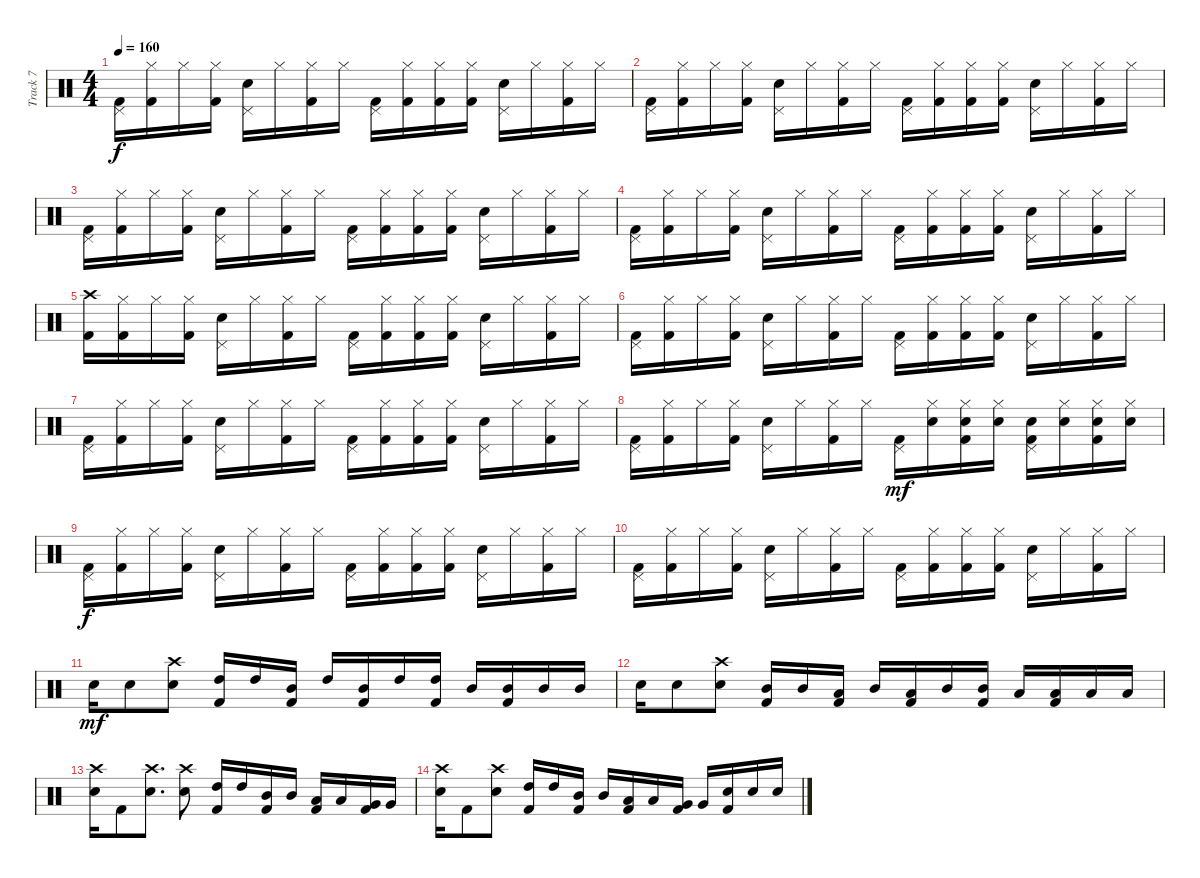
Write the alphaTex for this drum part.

\track ("Track 7" "Track 7") {instrument percussion}
\staff {score}
\articulation defaults
\ts (4 4)
\tempo 160
\clef neutral
\ks c
("Pedal Hi-Hat (hit)" "Kick (hit) 2").16{dy f} ("Hi-Hat (closed)" "Kick (hit) 2").16 "Hi-Hat (closed)".16 ("Hi-Hat (closed)" "Kick (hit) 2").16 ("Pedal Hi-Hat (hit)" "Snare (hit) 2").16 "Hi-Hat (closed)".16 ("Hi-Hat (closed)" "Kick (hit) 2").16 "Hi-Hat (closed)".16 ("Pedal Hi-Hat (hit)" "Kick (hit) 2").16 ("Hi-Hat (closed)" "Kick (hit) 2").16 ("Hi-Hat (closed)" "Kick (hit) 2").16 ("Hi-Hat (closed)" "Kick (hit) 2").16 ("Pedal Hi-Hat (hit)" "Snare (hit) 2").16 "Hi-Hat (closed)".16 ("Hi-Hat (closed)" "Kick (hit) 2").16 "Hi-Hat (closed)".16 |
("Pedal Hi-Hat (hit)" "Kick (hit) 2").16 ("Hi-Hat (closed)" "Kick (hit) 2").16 "Hi-Hat (closed)".16 ("Hi-Hat (closed)" "Kick (hit) 2").16 ("Pedal Hi-Hat (hit)" "Snare (hit) 2").16 "Hi-Hat (closed)".16 ("Hi-Hat (closed)" "Kick (hit) 2").16 "Hi-Hat (closed)".16 ("Pedal Hi-Hat (hit)" "Kick (hit) 2").16 ("Hi-Hat (closed)" "Kick (hit) 2").16 ("Hi-Hat (closed)" "Kick (hit) 2").16 ("Hi-Hat (closed)" "Kick (hit) 2").16 ("Pedal Hi-Hat (hit)" "Snare (hit) 2").16 "Hi-Hat (closed)".16 ("Hi-Hat (closed)" "Kick (hit) 2").16 "Hi-Hat (closed)".16 |
("Pedal Hi-Hat (hit)" "Kick (hit) 2").16 ("Hi-Hat (closed)" "Kick (hit) 2").16 "Hi-Hat (closed)".16 ("Hi-Hat (closed)" "Kick (hit) 2").16 ("Pedal Hi-Hat (hit)" "Snare (hit) 2").16 "Hi-Hat (closed)".16 ("Hi-Hat (closed)" "Kick (hit) 2").16 "Hi-Hat (closed)".16 ("Pedal Hi-Hat (hit)" "Kick (hit) 2").16 ("Hi-Hat (closed)" "Kick (hit) 2").16 ("Hi-Hat (closed)" "Kick (hit) 2").16 ("Hi-Hat (closed)" "Kick (hit) 2").16 ("Pedal Hi-Hat (hit)" "Snare (hit) 2").16 "Hi-Hat (closed)".16 ("Hi-Hat (closed)" "Kick (hit) 2").16 "Hi-Hat (closed)".16 |
("Pedal Hi-Hat (hit)" "Kick (hit) 2").16 ("Hi-Hat (closed)" "Kick (hit) 2").16 "Hi-Hat (closed)".16 ("Hi-Hat (closed)" "Kick (hit) 2").16 ("Pedal Hi-Hat (hit)" "Snare (hit) 2").16 "Hi-Hat (closed)".16 ("Hi-Hat (closed)" "Kick (hit) 2").16 "Hi-Hat (closed)".16 ("Pedal Hi-Hat (hit)" "Kick (hit) 2").16 ("Hi-Hat (closed)" "Kick (hit) 2").16 ("Hi-Hat (closed)" "Kick (hit) 2").16 ("Hi-Hat (closed)" "Kick (hit) 2").16 ("Pedal Hi-Hat (hit)" "Snare (hit) 2").16 "Hi-Hat (closed)".16 ("Hi-Hat (closed)" "Kick (hit) 2").16 "Hi-Hat (closed)".16 |
("Crash high (hit)" "Kick (hit) 2").16 ("Hi-Hat (closed)" "Kick (hit) 2").16 "Hi-Hat (closed)".16 ("Hi-Hat (closed)" "Kick (hit) 2").16 ("Pedal Hi-Hat (hit)" "Snare (hit) 2").16 "Hi-Hat (closed)".16 ("Hi-Hat (closed)" "Kick (hit) 2").16 "Hi-Hat (closed)".16 ("Pedal Hi-Hat (hit)" "Kick (hit) 2").16 ("Hi-Hat (closed)" "Kick (hit) 2").16 ("Hi-Hat (closed)" "Kick (hit) 2").16 ("Hi-Hat (closed)" "Kick (hit) 2").16 ("Pedal Hi-Hat (hit)" "Snare (hit) 2").16 "Hi-Hat (closed)".16 ("Hi-Hat (closed)" "Kick (hit) 2").16 "Hi-Hat (closed)".16 |
("Pedal Hi-Hat (hit)" "Kick (hit) 2").16 ("Hi-Hat (closed)" "Kick (hit) 2").16 "Hi-Hat (closed)".16 ("Hi-Hat (closed)" "Kick (hit) 2").16 ("Pedal Hi-Hat (hit)" "Snare (hit) 2").16 "Hi-Hat (closed)".16 ("Hi-Hat (closed)" "Kick (hit) 2").16 "Hi-Hat (closed)".16 ("Pedal Hi-Hat (hit)" "Kick (hit) 2").16 ("Hi-Hat (closed)" "Kick (hit) 2").16 ("Hi-Hat (closed)" "Kick (hit) 2").16 ("Hi-Hat (closed)" "Kick (hit) 2").16 ("Pedal Hi-Hat (hit)" "Snare (hit) 2").16 "Hi-Hat (closed)".16 ("Hi-Hat (closed)" "Kick (hit) 2").16 "Hi-Hat (closed)".16 |
("Pedal Hi-Hat (hit)" "Kick (hit) 2").16 ("Hi-Hat (closed)" "Kick (hit) 2").16 "Hi-Hat (closed)".16 ("Hi-Hat (closed)" "Kick (hit) 2").16 ("Pedal Hi-Hat (hit)" "Snare (hit) 2").16 "Hi-Hat (closed)".16 ("Hi-Hat (closed)" "Kick (hit) 2").16 "Hi-Hat (closed)".16 ("Pedal Hi-Hat (hit)" "Kick (hit) 2").16 ("Hi-Hat (closed)" "Kick (hit) 2").16 ("Hi-Hat (closed)" "Kick (hit) 2").16 ("Hi-Hat (closed)" "Kick (hit) 2").16 ("Pedal Hi-Hat (hit)" "Snare (hit) 2").16 "Hi-Hat (closed)".16 ("Hi-Hat (closed)" "Kick (hit) 2").16 "Hi-Hat (closed)".16 |
("Pedal Hi-Hat (hit)" "Kick (hit) 2").16 ("Hi-Hat (closed)" "Kick (hit) 2").16 "Hi-Hat (closed)".16 ("Hi-Hat (closed)" "Kick (hit) 2").16 ("Pedal Hi-Hat (hit)" "Snare (hit) 2").16 "Hi-Hat (closed)".16 ("Hi-Hat (closed)" "Kick (hit) 2").16 "Hi-Hat (closed)".16 ("Pedal Hi-Hat (hit)" "Kick (hit) 2").16{dy mf} ("Hi-Hat (closed)" "Snare (hit) 2").16 ("Hi-Hat (closed)" "Snare (hit) 2" "Kick (hit) 2").16 ("Hi-Hat (closed)" "Snare (hit) 2").16 ("Pedal Hi-Hat (hit)" "Snare (hit) 2" "Kick (hit) 2").16 ("Hi-Hat (closed)" "Snare (hit) 2").16 ("Hi-Hat (closed)" "Snare (hit) 2" "Kick (hit) 2").16 ("Hi-Hat (closed)" "Snare (hit) 2").16 |
("Pedal Hi-Hat (hit)" "Kick (hit) 2").16{dy f} ("Hi-Hat (closed)" "Kick (hit) 2").16 "Hi-Hat (closed)".16 ("Hi-Hat (closed)" "Kick (hit) 2").16 ("Pedal Hi-Hat (hit)" "Snare (hit) 2").16 "Hi-Hat (closed)".16 ("Hi-Hat (closed)" "Kick (hit) 2").16 "Hi-Hat (closed)".16 ("Pedal Hi-Hat (hit)" "Kick (hit) 2").16 ("Hi-Hat (closed)" "Kick (hit) 2").16 ("Hi-Hat (closed)" "Kick (hit) 2").16 ("Hi-Hat (closed)" "Kick (hit) 2").16 ("Pedal Hi-Hat (hit)" "Snare (hit) 2").16 "Hi-Hat (closed)".16 ("Hi-Hat (closed)" "Kick (hit) 2").16 "Hi-Hat (closed)".16 |
("Pedal Hi-Hat (hit)" "Kick (hit) 2").16 ("Hi-Hat (closed)" "Kick (hit) 2").16 "Hi-Hat (closed)".16 ("Hi-Hat (closed)" "Kick (hit) 2").16 ("Pedal Hi-Hat (hit)" "Snare (hit) 2").16 "Hi-Hat (closed)".16 ("Hi-Hat (closed)" "Kick (hit) 2").16 "Hi-Hat (closed)".16 ("Pedal Hi-Hat (hit)" "Kick (hit) 2").16 ("Hi-Hat (closed)" "Kick (hit) 2").16 ("Hi-Hat (closed)" "Kick (hit) 2").16 ("Hi-Hat (closed)" "Kick (hit) 2").16 ("Pedal Hi-Hat (hit)" "Snare (hit) 2").16 "Hi-Hat (closed)".16 ("Hi-Hat (closed)" "Kick (hit) 2").16 "Hi-Hat (closed)".16 |
"Snare (hit) 2".16{dy mf} "Snare (hit) 2".8 ("Crash high (hit)" "Snare (hit) 2").8 ("High Tom (hit)" "Kick (hit) 2").16 "High Tom (hit)".16 ("Mid Tom (hit)" "Kick (hit) 2").16 "High Tom (hit)".16 ("Mid Tom (hit)" "Kick (hit) 2").16 "High Tom (hit)".16 ("High Tom (hit)" "Kick (hit) 2").16 "Mid Tom (hit)".16 ("Mid Tom (hit)" "Kick (hit) 2").16 "Mid Tom (hit)".16 "Mid Tom (hit)".16 |
"Snare (hit) 2".16 "Snare (hit) 2".8 ("Crash high (hit)" "Snare (hit) 2").8 ("Mid Tom (hit)" "Kick (hit) 2").16 "Mid Tom (hit)".16 ("Low Tom (hit)" "Kick (hit) 2").16 "Mid Tom (hit)".16 ("Low Tom (hit)" "Kick (hit) 2").16 "Mid Tom (hit)".16 ("Mid Tom (hit)" "Kick (hit) 2").16 "Low Tom (hit)".16 ("Low Tom (hit)" "Kick (hit) 2").16 "Low Tom (hit)".16 "Low Tom (hit)".16 |
("Crash high (hit)" "Snare (hit) 2").16 "Kick (hit) 2".8 ("Crash high (hit)" "Snare (hit) 2").8{d} ("Crash high (hit)" "Snare (hit) 2").8 ("High Tom (hit)" "Kick (hit) 2").16 "High Tom (hit)".16 ("Mid Tom (hit)" "Kick (hit) 2").16 "Mid Tom (hit)".16 ("Low Tom (hit)" "Kick (hit) 2").16 "Low Tom (hit)".16 ("Very Low Tom (hit)" "Kick (hit) 2").16 "Very Low Tom (hit)".16 |
("Crash high (hit)" "Snare (hit) 2").16 "Kick (hit) 2".8 ("Crash high (hit)" "Snare (hit) 2").8 ("High Tom (hit)" "Kick (hit) 2").16 "High Tom (hit)".16 ("Mid Tom (hit)" "Kick (hit) 2").16 "Mid Tom (hit)".16 ("Low Tom (hit)" "Kick (hit) 2").16 "Low Tom (hit)".16 ("Very Low Tom (hit)" "Kick (hit) 2").16 "Very Low Tom (hit)".16 ("Snare (hit) 2" "Kick (hit) 2").16 "Snare (hit) 2".16 "Snare (hit) 2".16
